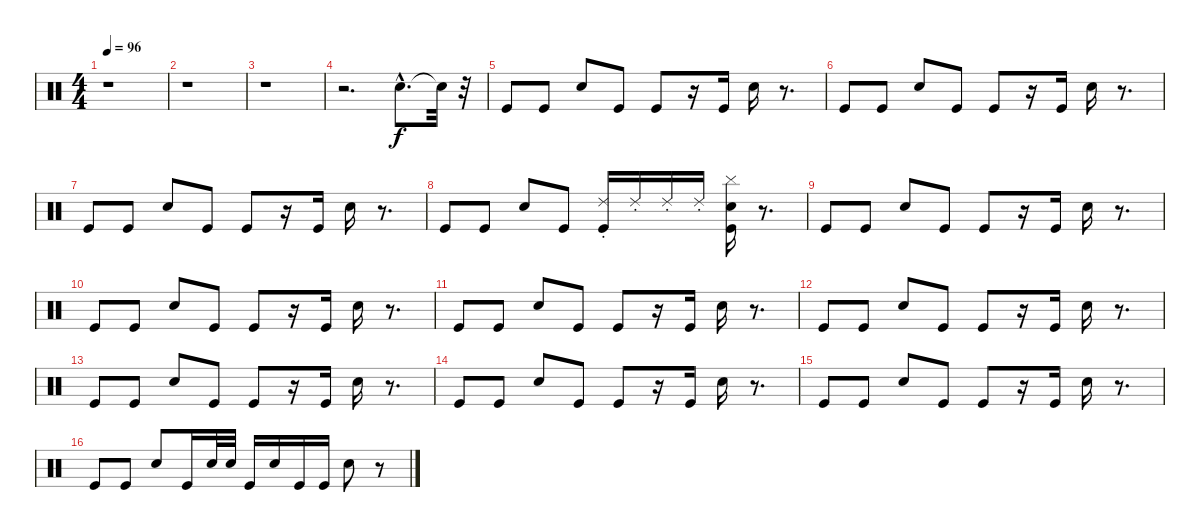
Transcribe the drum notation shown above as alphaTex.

\track "" {instrument percussion}
\staff {score}
\articulation defaults
\ts (4 4)
\tempo 96
\clef neutral
\ks c
r.1{dy f} |
r.1 |
r.1 |
r.2{d} "Snare (hit) 2"{hac}.8{d} "Snare (hit)"{t}.32 r.32 |
"Kick (hit)".8 "Kick (hit)".8 "Snare (hit) 2".8 "Kick (hit)".8 "Kick (hit)".8 r.16 "Kick (hit)".16 "Snare (hit) 2".16 r.8{d} |
"Kick (hit)".8 "Kick (hit)".8 "Snare (hit) 2".8 "Kick (hit)".8 "Kick (hit)".8 r.16 "Kick (hit)".16 "Snare (hit) 2".16 r.8{d} |
"Kick (hit)".8 "Kick (hit)".8 "Snare (hit) 2".8 "Kick (hit)".8 "Kick (hit)".8 r.16 "Kick (hit)".16 "Snare (hit) 2".16 r.8{d} |
"Kick (hit)".8 "Kick (hit)".8 "Snare (hit) 2".8 "Kick (hit)".8 ("Kick (hit)" "Ride (choke) 2").16 "Ride (choke) 2".16 "Ride (choke) 2".16 "Ride (choke) 2".16 ("Cymbal (hit)" "Kick (hit)" "Snare (hit) 2").16 r.8{d} |
"Kick (hit)".8 "Kick (hit)".8 "Snare (hit) 2".8 "Kick (hit)".8 "Kick (hit)".8 r.16 "Kick (hit)".16 "Snare (hit) 2".16 r.8{d} |
"Kick (hit)".8 "Kick (hit)".8 "Snare (hit) 2".8 "Kick (hit)".8 "Kick (hit)".8 r.16 "Kick (hit)".16 "Snare (hit) 2".16 r.8{d} |
"Kick (hit)".8 "Kick (hit)".8 "Snare (hit) 2".8 "Kick (hit)".8 "Kick (hit)".8 r.16 "Kick (hit)".16 "Snare (hit) 2".16 r.8{d} |
"Kick (hit)".8 "Kick (hit)".8 "Snare (hit) 2".8 "Kick (hit)".8 "Kick (hit)".8 r.16 "Kick (hit)".16 "Snare (hit) 2".16 r.8{d} |
"Kick (hit)".8 "Kick (hit)".8 "Snare (hit) 2".8 "Kick (hit)".8 "Kick (hit)".8 r.16 "Kick (hit)".16 "Snare (hit) 2".16 r.8{d} |
"Kick (hit)".8 "Kick (hit)".8 "Snare (hit) 2".8 "Kick (hit)".8 "Kick (hit)".8 r.16 "Kick (hit)".16 "Snare (hit) 2".16 r.8{d} |
"Kick (hit)".8 "Kick (hit)".8 "Snare (hit) 2".8 "Kick (hit)".8 "Kick (hit)".8 r.16 "Kick (hit)".16 "Snare (hit) 2".16 r.8{d} |
"Kick (hit)".8 "Kick (hit)".8 "Snare (hit) 2".8 "Kick (hit)".16 "Snare (hit) 2".32 "Snare (hit) 2".32 "Kick (hit)".16 "Snare (hit) 2".16 "Kick (hit)".16 "Kick (hit)".16 "Snare (hit) 2".8 r.8
